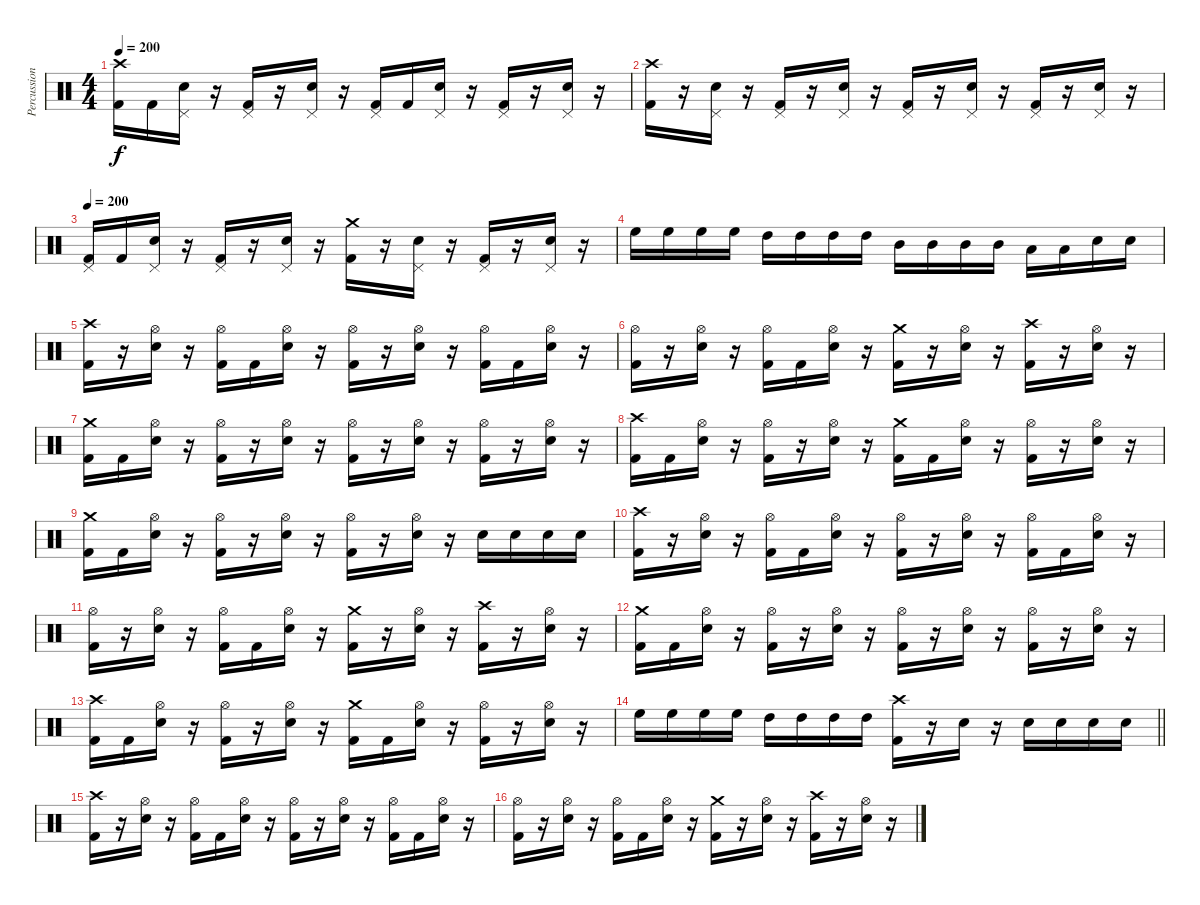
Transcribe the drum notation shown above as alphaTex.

\track ("Percussion" "Percussion") {instrument percussion}
\staff {score}
\articulation defaults
\ts (4 4)
\tempo 200
\clef neutral
\ks c
("Crash high (hit)" "Kick (hit) 2").16{dy f} "Kick (hit) 2".16 ("Pedal Hi-Hat (hit)" "Snare (hit) 2").16 r.16 ("Pedal Hi-Hat (hit)" "Kick (hit) 2").16 r.16 ("Pedal Hi-Hat (hit)" "Snare (hit) 2").16 r.16 ("Pedal Hi-Hat (hit)" "Kick (hit) 2").16 "Kick (hit) 2".16 ("Pedal Hi-Hat (hit)" "Snare (hit) 2").16 r.16 ("Pedal Hi-Hat (hit)" "Kick (hit) 2").16 r.16 ("Pedal Hi-Hat (hit)" "Snare (hit) 2").16 r.16 |
("Crash high (hit)" "Kick (hit) 2").16 r.16 ("Pedal Hi-Hat (hit)" "Snare (hit) 2").16 r.16 ("Pedal Hi-Hat (hit)" "Kick (hit) 2").16 r.16 ("Pedal Hi-Hat (hit)" "Snare (hit) 2").16 r.16 ("Pedal Hi-Hat (hit)" "Kick (hit) 2").16 r.16 ("Pedal Hi-Hat (hit)" "Snare (hit) 2").16 r.16 ("Pedal Hi-Hat (hit)" "Kick (hit) 2").16 r.16 ("Pedal Hi-Hat (hit)" "Snare (hit) 2").16 r.16 |
\tempo 200
("Pedal Hi-Hat (hit)" "Kick (hit) 2").16 "Kick (hit) 2".16 ("Pedal Hi-Hat (hit)" "Snare (hit) 2").16 r.16 ("Pedal Hi-Hat (hit)" "Kick (hit) 2").16 r.16 ("Pedal Hi-Hat (hit)" "Snare (hit) 2").16 r.16 ("Crash medium (hit)" "Kick (hit) 2").16 r.16 ("Pedal Hi-Hat (hit)" "Snare (hit) 2").16 r.16 ("Pedal Hi-Hat (hit)" "Kick (hit) 2").16 r.16 ("Pedal Hi-Hat (hit)" "Snare (hit) 2").16 r.16 |
"High Floor Tom (hit)".16 "High Floor Tom (hit)".16 "High Floor Tom (hit)".16 "High Floor Tom (hit)".16 "High Tom (hit)".16 "High Tom (hit)".16 "High Tom (hit)".16 "High Tom (hit)".16 "Mid Tom (hit)".16 "Mid Tom (hit)".16 "Mid Tom (hit)".16 "Mid Tom (hit)".16 "Low Tom (hit)".16 "Low Tom (hit)".16 "Snare (hit) 2".16 "Snare (hit) 2".16 |
("Crash high (hit)" "Kick (hit) 2").16 r.16 ("Hi-Hat (open)" "Snare (hit) 2").16 r.16 ("Hi-Hat (open)" "Kick (hit) 2").16 "Kick (hit) 2".16 ("Hi-Hat (open)" "Snare (hit) 2").16 r.16 ("Hi-Hat (open)" "Kick (hit) 2").16 r.16 ("Hi-Hat (open)" "Snare (hit) 2").16 r.16 ("Hi-Hat (open)" "Kick (hit) 2").16 "Kick (hit) 2".16 ("Hi-Hat (open)" "Snare (hit) 2").16 r.16 |
("Hi-Hat (open)" "Kick (hit) 2").16 r.16 ("Hi-Hat (open)" "Snare (hit) 2").16 r.16 ("Hi-Hat (open)" "Kick (hit) 2").16 "Kick (hit) 2".16 ("Hi-Hat (open)" "Snare (hit) 2").16 r.16 ("Crash medium (hit)" "Kick (hit) 2").16 r.16 ("Hi-Hat (open)" "Snare (hit) 2").16 r.16 ("Crash high (hit)" "Kick (hit) 2").16 r.16 ("Hi-Hat (open)" "Snare (hit) 2").16 r.16 |
("Crash medium (hit)" "Kick (hit) 2").16 "Kick (hit) 2".16 ("Hi-Hat (open)" "Snare (hit) 2").16 r.16 ("Hi-Hat (open)" "Kick (hit) 2").16 r.16 ("Hi-Hat (open)" "Snare (hit) 2").16 r.16 ("Hi-Hat (open)" "Kick (hit) 2").16 r.16 ("Hi-Hat (open)" "Snare (hit) 2").16 r.16 ("Hi-Hat (open)" "Kick (hit) 2").16 r.16 ("Hi-Hat (open)" "Snare (hit) 2").16 r.16 |
("Crash high (hit)" "Kick (hit) 2").16 "Kick (hit) 2".16 ("Hi-Hat (open)" "Snare (hit) 2").16 r.16 ("Hi-Hat (open)" "Kick (hit) 2").16 r.16 ("Hi-Hat (open)" "Snare (hit) 2").16 r.16 ("Crash medium (hit)" "Kick (hit) 2").16 "Kick (hit) 2".16 ("Hi-Hat (open)" "Snare (hit) 2").16 r.16 ("Hi-Hat (open)" "Kick (hit) 2").16 r.16 ("Hi-Hat (open)" "Snare (hit) 2").16 r.16 |
("Crash medium (hit)" "Kick (hit) 2").16 "Kick (hit) 2".16 ("Hi-Hat (open)" "Snare (hit) 2").16 r.16 ("Hi-Hat (open)" "Kick (hit) 2").16 r.16 ("Hi-Hat (open)" "Snare (hit) 2").16 r.16 ("Hi-Hat (open)" "Kick (hit) 2").16 r.16 ("Hi-Hat (open)" "Snare (hit) 2").16 r.16 "Snare (hit) 2".16 "Snare (hit) 2".16 "Snare (hit) 2".16 "Snare (hit) 2".16 |
("Crash high (hit)" "Kick (hit) 2").16 r.16 ("Hi-Hat (open)" "Snare (hit) 2").16 r.16 ("Hi-Hat (open)" "Kick (hit) 2").16 "Kick (hit) 2".16 ("Hi-Hat (open)" "Snare (hit) 2").16 r.16 ("Hi-Hat (open)" "Kick (hit) 2").16 r.16 ("Hi-Hat (open)" "Snare (hit) 2").16 r.16 ("Hi-Hat (open)" "Kick (hit) 2").16 "Kick (hit) 2".16 ("Hi-Hat (open)" "Snare (hit) 2").16 r.16 |
("Hi-Hat (open)" "Kick (hit) 2").16 r.16 ("Hi-Hat (open)" "Snare (hit) 2").16 r.16 ("Hi-Hat (open)" "Kick (hit) 2").16 "Kick (hit) 2".16 ("Hi-Hat (open)" "Snare (hit) 2").16 r.16 ("Crash medium (hit)" "Kick (hit) 2").16 r.16 ("Hi-Hat (open)" "Snare (hit) 2").16 r.16 ("Crash high (hit)" "Kick (hit) 2").16 r.16 ("Hi-Hat (open)" "Snare (hit) 2").16 r.16 |
("Crash medium (hit)" "Kick (hit) 2").16 "Kick (hit) 2".16 ("Hi-Hat (open)" "Snare (hit) 2").16 r.16 ("Hi-Hat (open)" "Kick (hit) 2").16 r.16 ("Hi-Hat (open)" "Snare (hit) 2").16 r.16 ("Hi-Hat (open)" "Kick (hit) 2").16 r.16 ("Hi-Hat (open)" "Snare (hit) 2").16 r.16 ("Hi-Hat (open)" "Kick (hit) 2").16 r.16 ("Hi-Hat (open)" "Snare (hit) 2").16 r.16 |
("Crash high (hit)" "Kick (hit) 2").16 "Kick (hit) 2".16 ("Hi-Hat (open)" "Snare (hit) 2").16 r.16 ("Hi-Hat (open)" "Kick (hit) 2").16 r.16 ("Hi-Hat (open)" "Snare (hit) 2").16 r.16 ("Crash medium (hit)" "Kick (hit) 2").16 "Kick (hit) 2".16 ("Hi-Hat (open)" "Snare (hit) 2").16 r.16 ("Hi-Hat (open)" "Kick (hit) 2").16 r.16 ("Hi-Hat (open)" "Snare (hit) 2").16 r.16 |
\barLineRight lightlight "High Floor Tom (hit)".16 "High Floor Tom (hit)".16 "High Floor Tom (hit)".16 "High Floor Tom (hit)".16 "High Tom (hit)".16 "High Tom (hit)".16 "High Tom (hit)".16 "High Tom (hit)".16
("Crash high (hit)" "Kick (hit) 2").16 r.16 "Snare (hit) 2".16 r.16 "Snare (hit) 2".16 "Snare (hit) 2".16 "Snare (hit) 2".16 "Snare (hit) 2".16 |
\section ("" "")
("Crash high (hit)" "Kick (hit) 2").16 r.16 ("Hi-Hat (open)" "Snare (hit) 2").16 r.16 ("Hi-Hat (open)" "Kick (hit) 2").16 "Kick (hit) 2".16 ("Hi-Hat (open)" "Snare (hit) 2").16 r.16 ("Hi-Hat (open)" "Kick (hit) 2").16 r.16 ("Hi-Hat (open)" "Snare (hit) 2").16 r.16 ("Hi-Hat (open)" "Kick (hit) 2").16 "Kick (hit) 2".16 ("Hi-Hat (open)" "Snare (hit) 2").16 r.16 |
("Hi-Hat (open)" "Kick (hit) 2").16 r.16 ("Hi-Hat (open)" "Snare (hit) 2").16 r.16 ("Hi-Hat (open)" "Kick (hit) 2").16 "Kick (hit) 2".16 ("Hi-Hat (open)" "Snare (hit) 2").16 r.16 ("Crash medium (hit)" "Kick (hit) 2").16 r.16 ("Hi-Hat (open)" "Snare (hit) 2").16 r.16 ("Crash high (hit)" "Kick (hit) 2").16 r.16 ("Hi-Hat (open)" "Snare (hit) 2").16 r.16
